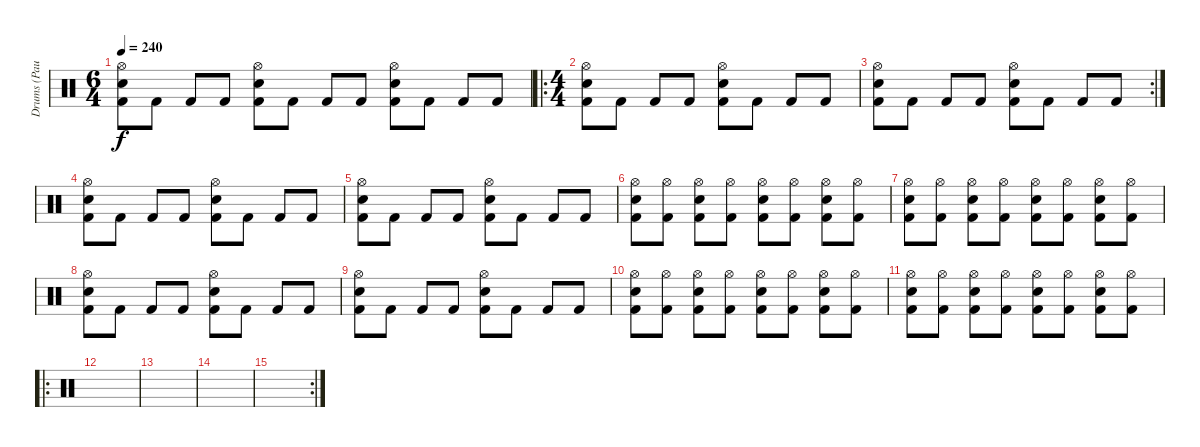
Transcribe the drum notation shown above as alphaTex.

\track ("Drums (Paul)" "Drums (Pau") {instrument percussion}
\staff {score}
\articulation defaults
\ts (6 4)
\tempo 240
\clef neutral
\ks c
("Hi-Hat (open)" "Snare (hit) 2" "Kick (hit) 2").8{dy f} "Kick (hit) 2".8 "Kick (hit) 2".8 "Kick (hit) 2".8 ("Hi-Hat (open)" "Snare (hit) 2" "Kick (hit) 2").8 "Kick (hit) 2".8 "Kick (hit) 2".8 "Kick (hit) 2".8 ("Hi-Hat (open)" "Snare (hit) 2" "Kick (hit) 2").8 "Kick (hit) 2".8 "Kick (hit) 2".8 "Kick (hit) 2".8 |
\ro
\ts (4 4)
("Hi-Hat (open)" "Snare (hit) 2" "Kick (hit) 2").8 "Kick (hit) 2".8 "Kick (hit) 2".8 "Kick (hit) 2".8 ("Hi-Hat (open)" "Snare (hit) 2" "Kick (hit) 2").8 "Kick (hit) 2".8 "Kick (hit) 2".8 "Kick (hit) 2".8 |
\rc 2
("Hi-Hat (open)" "Snare (hit) 2" "Kick (hit) 2").8 "Kick (hit) 2".8 "Kick (hit) 2".8 "Kick (hit) 2".8 ("Hi-Hat (open)" "Snare (hit) 2" "Kick (hit) 2").8 "Kick (hit) 2".8 "Kick (hit) 2".8 "Kick (hit) 2".8 |
("Hi-Hat (open)" "Snare (hit) 2" "Kick (hit) 2").8 "Kick (hit) 2".8 "Kick (hit) 2".8 "Kick (hit) 2".8 ("Hi-Hat (open)" "Snare (hit) 2" "Kick (hit) 2").8 "Kick (hit) 2".8 "Kick (hit) 2".8 "Kick (hit) 2".8 |
("Hi-Hat (open)" "Snare (hit) 2" "Kick (hit) 2").8 "Kick (hit) 2".8 "Kick (hit) 2".8 "Kick (hit) 2".8 ("Hi-Hat (open)" "Snare (hit) 2" "Kick (hit) 2").8 "Kick (hit) 2".8 "Kick (hit) 2".8 "Kick (hit) 2".8 |
("Hi-Hat (open)" "Snare (hit) 2" "Kick (hit) 2").8 ("Hi-Hat (open)" "Kick (hit) 2").8 ("Hi-Hat (open)" "Snare (hit) 2" "Kick (hit) 2").8 ("Hi-Hat (open)" "Kick (hit) 2").8 ("Hi-Hat (open)" "Snare (hit) 2" "Kick (hit) 2").8 ("Hi-Hat (open)" "Kick (hit) 2").8 ("Hi-Hat (open)" "Snare (hit) 2" "Kick (hit) 2").8 ("Hi-Hat (open)" "Kick (hit) 2").8 |
("Hi-Hat (open)" "Snare (hit) 2" "Kick (hit) 2").8 ("Hi-Hat (open)" "Kick (hit) 2").8 ("Hi-Hat (open)" "Snare (hit) 2" "Kick (hit) 2").8 ("Hi-Hat (open)" "Kick (hit) 2").8 ("Hi-Hat (open)" "Snare (hit) 2" "Kick (hit) 2").8 ("Hi-Hat (open)" "Kick (hit) 2").8 ("Hi-Hat (open)" "Snare (hit) 2" "Kick (hit) 2").8 ("Hi-Hat (open)" "Kick (hit) 2").8 |
("Hi-Hat (open)" "Snare (hit) 2" "Kick (hit) 2").8 "Kick (hit) 2".8 "Kick (hit) 2".8 "Kick (hit) 2".8 ("Hi-Hat (open)" "Snare (hit) 2" "Kick (hit) 2").8 "Kick (hit) 2".8 "Kick (hit) 2".8 "Kick (hit) 2".8 |
("Hi-Hat (open)" "Snare (hit) 2" "Kick (hit) 2").8 "Kick (hit) 2".8 "Kick (hit) 2".8 "Kick (hit) 2".8 ("Hi-Hat (open)" "Snare (hit) 2" "Kick (hit) 2").8 "Kick (hit) 2".8 "Kick (hit) 2".8 "Kick (hit) 2".8 |
("Hi-Hat (open)" "Snare (hit) 2" "Kick (hit) 2").8 ("Hi-Hat (open)" "Kick (hit) 2").8 ("Hi-Hat (open)" "Snare (hit) 2" "Kick (hit) 2").8 ("Hi-Hat (open)" "Kick (hit) 2").8 ("Hi-Hat (open)" "Snare (hit) 2" "Kick (hit) 2").8 ("Hi-Hat (open)" "Kick (hit) 2").8 ("Hi-Hat (open)" "Snare (hit) 2" "Kick (hit) 2").8 ("Hi-Hat (open)" "Kick (hit) 2").8 |
("Hi-Hat (open)" "Snare (hit) 2" "Kick (hit) 2").8 ("Hi-Hat (open)" "Kick (hit) 2").8 ("Hi-Hat (open)" "Snare (hit) 2" "Kick (hit) 2").8 ("Hi-Hat (open)" "Kick (hit) 2").8 ("Hi-Hat (open)" "Snare (hit) 2" "Kick (hit) 2").8 ("Hi-Hat (open)" "Kick (hit) 2").8 ("Hi-Hat (open)" "Snare (hit) 2" "Kick (hit) 2").8 ("Hi-Hat (open)" "Kick (hit) 2").8 |
\ro
|
|
|
\rc 2
